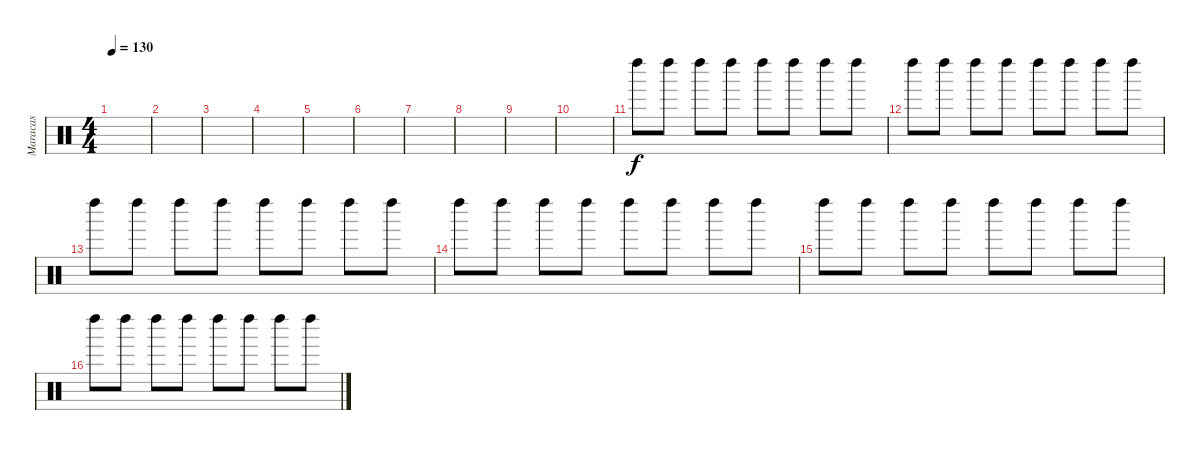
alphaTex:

\track ("Maracas" "Maracas") {instrument percussion}
\staff {score}
\articulation defaults
\ts (4 4)
\tempo 130
\clef neutral
\ks c
|
|
|
|
|
|
|
|
|
|
"Left Maraca (hit)".8 "Left Maraca (hit)".8 "Left Maraca (hit)".8 "Left Maraca (hit)".8 "Left Maraca (hit)".8 "Left Maraca (hit)".8 "Left Maraca (hit)".8 "Left Maraca (hit)".8 |
"Left Maraca (hit)".8 "Left Maraca (hit)".8 "Left Maraca (hit)".8 "Left Maraca (hit)".8 "Left Maraca (hit)".8 "Left Maraca (hit)".8 "Left Maraca (hit)".8 "Left Maraca (hit)".8 |
"Left Maraca (hit)".8 "Left Maraca (hit)".8 "Left Maraca (hit)".8 "Left Maraca (hit)".8 "Left Maraca (hit)".8 "Left Maraca (hit)".8 "Left Maraca (hit)".8 "Left Maraca (hit)".8 |
"Left Maraca (hit)".8 "Left Maraca (hit)".8 "Left Maraca (hit)".8 "Left Maraca (hit)".8 "Left Maraca (hit)".8 "Left Maraca (hit)".8 "Left Maraca (hit)".8 "Left Maraca (hit)".8 |
"Left Maraca (hit)".8 "Left Maraca (hit)".8 "Left Maraca (hit)".8 "Left Maraca (hit)".8 "Left Maraca (hit)".8 "Left Maraca (hit)".8 "Left Maraca (hit)".8 "Left Maraca (hit)".8 |
"Left Maraca (hit)".8 "Left Maraca (hit)".8 "Left Maraca (hit)".8 "Left Maraca (hit)".8 "Left Maraca (hit)".8 "Left Maraca (hit)".8 "Left Maraca (hit)".8 "Left Maraca (hit)".8
